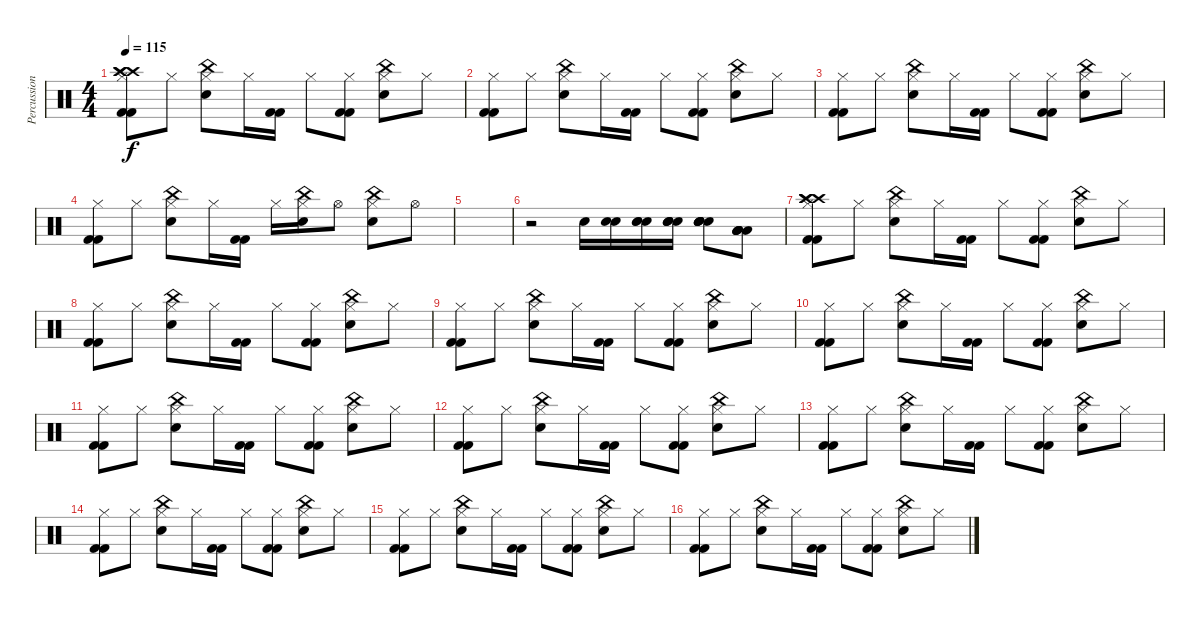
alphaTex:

\track ("Percussion" "Percussion") {instrument percussion}
\staff {score}
\articulation defaults
\ts (4 4)
\tempo 115
\clef neutral
\ks c
("Hi-Hat (closed)" "Kick (hit) 2" "Kick (hit) 2" "Crash high (hit)" "Crash high (hit)" "Crash high (hit)").8{dy f} "Hi-Hat (closed)".8 ("Hi-Hat (closed)" "Electric Snare (hit)" "China (hit)").8 "Hi-Hat (closed)".16 ("Kick (hit) 2" "Kick (hit) 2").16 "Hi-Hat (closed)".8 ("Hi-Hat (closed)" "Kick (hit) 2" "Kick (hit) 2").8 ("Hi-Hat (closed)" "Electric Snare (hit)" "China (hit)").8 "Hi-Hat (closed)".8 |
("Hi-Hat (closed)" "Kick (hit) 2" "Kick (hit) 2").8 "Hi-Hat (closed)".8 ("Hi-Hat (closed)" "Electric Snare (hit)" "China (hit)").8 "Hi-Hat (closed)".16 ("Kick (hit) 2" "Kick (hit) 2").16 "Hi-Hat (closed)".8 ("Hi-Hat (closed)" "Kick (hit) 2" "Kick (hit) 2").8 ("Hi-Hat (closed)" "Electric Snare (hit)" "China (hit)").8 "Hi-Hat (closed)".8 |
("Hi-Hat (closed)" "Kick (hit) 2" "Kick (hit) 2").8 "Hi-Hat (closed)".8 ("Hi-Hat (closed)" "Electric Snare (hit)" "China (hit)").8 "Hi-Hat (closed)".16 ("Kick (hit) 2" "Kick (hit) 2").16 "Hi-Hat (closed)".8 ("Hi-Hat (closed)" "Kick (hit) 2" "Kick (hit) 2").8 ("Hi-Hat (closed)" "Electric Snare (hit)" "China (hit)").8 "Hi-Hat (closed)".8 |
("Hi-Hat (closed)" "Kick (hit) 2" "Kick (hit) 2").8 "Hi-Hat (closed)".8 ("Hi-Hat (closed)" "Electric Snare (hit)" "China (hit)").8 "Hi-Hat (closed)".16 ("Kick (hit) 2" "Kick (hit) 2").16 "Hi-Hat (closed)".16 ("Hi-Hat (closed)" "Electric Snare (hit)" "China (hit)").16 "Hi-Hat (open)".8 ("Hi-Hat (closed)" "Electric Snare (hit)" "China (hit)").8 "Hi-Hat (open)".8 |
|
r.2 "Electric Snare (hit)".16 ("Electric Snare (hit)" "Electric Snare (hit)").16 ("Electric Snare (hit)" "Electric Snare (hit)" "Electric Snare (hit)").16 ("Electric Snare (hit)" "Electric Snare (hit)" "Electric Snare (hit)" "Electric Snare (hit)").16 ("Electric Snare (hit)" "Electric Snare (hit)" "Electric Snare (hit)" "Electric Snare (hit)" "Electric Snare (hit)").8 ("Low Floor Tom (hit)" "Low Floor Tom (hit)" "Low Floor Tom (hit)" "Low Floor Tom (hit)" "Low Floor Tom (hit)").8 |
("Hi-Hat (closed)" "Kick (hit) 2" "Kick (hit) 2" "Crash high (hit)" "Crash high (hit)" "Crash high (hit)").8 "Hi-Hat (closed)".8 ("Hi-Hat (closed)" "Electric Snare (hit)" "China (hit)").8 "Hi-Hat (closed)".16 ("Kick (hit) 2" "Kick (hit) 2").16 "Hi-Hat (closed)".8 ("Hi-Hat (closed)" "Kick (hit) 2" "Kick (hit) 2").8 ("Hi-Hat (closed)" "Electric Snare (hit)" "China (hit)").8 "Hi-Hat (closed)".8 |
("Hi-Hat (closed)" "Kick (hit) 2" "Kick (hit) 2").8 "Hi-Hat (closed)".8 ("Hi-Hat (closed)" "Electric Snare (hit)" "China (hit)").8 "Hi-Hat (closed)".16 ("Kick (hit) 2" "Kick (hit) 2").16 "Hi-Hat (closed)".8 ("Hi-Hat (closed)" "Kick (hit) 2" "Kick (hit) 2").8 ("Hi-Hat (closed)" "Electric Snare (hit)" "China (hit)").8 "Hi-Hat (closed)".8 |
("Hi-Hat (closed)" "Kick (hit) 2" "Kick (hit) 2").8 "Hi-Hat (closed)".8 ("Hi-Hat (closed)" "Electric Snare (hit)" "China (hit)").8 "Hi-Hat (closed)".16 ("Kick (hit) 2" "Kick (hit) 2").16 "Hi-Hat (closed)".8 ("Hi-Hat (closed)" "Kick (hit) 2" "Kick (hit) 2").8 ("Hi-Hat (closed)" "Electric Snare (hit)" "China (hit)").8 "Hi-Hat (closed)".8 |
("Hi-Hat (closed)" "Kick (hit) 2" "Kick (hit) 2").8 "Hi-Hat (closed)".8 ("Hi-Hat (closed)" "Electric Snare (hit)" "China (hit)").8 "Hi-Hat (closed)".16 ("Kick (hit) 2" "Kick (hit) 2").16 "Hi-Hat (closed)".8 ("Hi-Hat (closed)" "Kick (hit) 2" "Kick (hit) 2").8 ("Hi-Hat (closed)" "Electric Snare (hit)" "China (hit)").8 "Hi-Hat (closed)".8 |
("Hi-Hat (closed)" "Kick (hit) 2" "Kick (hit) 2").8 "Hi-Hat (closed)".8 ("Hi-Hat (closed)" "Electric Snare (hit)" "China (hit)").8 "Hi-Hat (closed)".16 ("Kick (hit) 2" "Kick (hit) 2").16 "Hi-Hat (closed)".8 ("Hi-Hat (closed)" "Kick (hit) 2" "Kick (hit) 2").8 ("Hi-Hat (closed)" "Electric Snare (hit)" "China (hit)").8 "Hi-Hat (closed)".8 |
("Hi-Hat (closed)" "Kick (hit) 2" "Kick (hit) 2").8 "Hi-Hat (closed)".8 ("Hi-Hat (closed)" "Electric Snare (hit)" "China (hit)").8 "Hi-Hat (closed)".16 ("Kick (hit) 2" "Kick (hit) 2").16 "Hi-Hat (closed)".8 ("Hi-Hat (closed)" "Kick (hit) 2" "Kick (hit) 2").8 ("Hi-Hat (closed)" "Electric Snare (hit)" "China (hit)").8 "Hi-Hat (closed)".8 |
("Hi-Hat (closed)" "Kick (hit) 2" "Kick (hit) 2").8 "Hi-Hat (closed)".8 ("Hi-Hat (closed)" "Electric Snare (hit)" "China (hit)").8 "Hi-Hat (closed)".16 ("Kick (hit) 2" "Kick (hit) 2").16 "Hi-Hat (closed)".8 ("Hi-Hat (closed)" "Kick (hit) 2" "Kick (hit) 2").8 ("Hi-Hat (closed)" "Electric Snare (hit)" "China (hit)").8 "Hi-Hat (closed)".8 |
("Hi-Hat (closed)" "Kick (hit) 2" "Kick (hit) 2").8 "Hi-Hat (closed)".8 ("Hi-Hat (closed)" "Electric Snare (hit)" "China (hit)").8 "Hi-Hat (closed)".16 ("Kick (hit) 2" "Kick (hit) 2").16 "Hi-Hat (closed)".8 ("Hi-Hat (closed)" "Kick (hit) 2" "Kick (hit) 2").8 ("Hi-Hat (closed)" "Electric Snare (hit)" "China (hit)").8 "Hi-Hat (closed)".8 |
("Hi-Hat (closed)" "Kick (hit) 2" "Kick (hit) 2").8 "Hi-Hat (closed)".8 ("Hi-Hat (closed)" "Electric Snare (hit)" "China (hit)").8 "Hi-Hat (closed)".16 ("Kick (hit) 2" "Kick (hit) 2").16 "Hi-Hat (closed)".8 ("Hi-Hat (closed)" "Kick (hit) 2" "Kick (hit) 2").8 ("Hi-Hat (closed)" "Electric Snare (hit)" "China (hit)").8 "Hi-Hat (closed)".8 |
("Hi-Hat (closed)" "Kick (hit) 2" "Kick (hit) 2").8 "Hi-Hat (closed)".8 ("Hi-Hat (closed)" "Electric Snare (hit)" "China (hit)").8 "Hi-Hat (closed)".16 ("Kick (hit) 2" "Kick (hit) 2").16 "Hi-Hat (closed)".8 ("Hi-Hat (closed)" "Kick (hit) 2" "Kick (hit) 2").8 ("Hi-Hat (closed)" "Electric Snare (hit)" "China (hit)").8 "Hi-Hat (closed)".8
